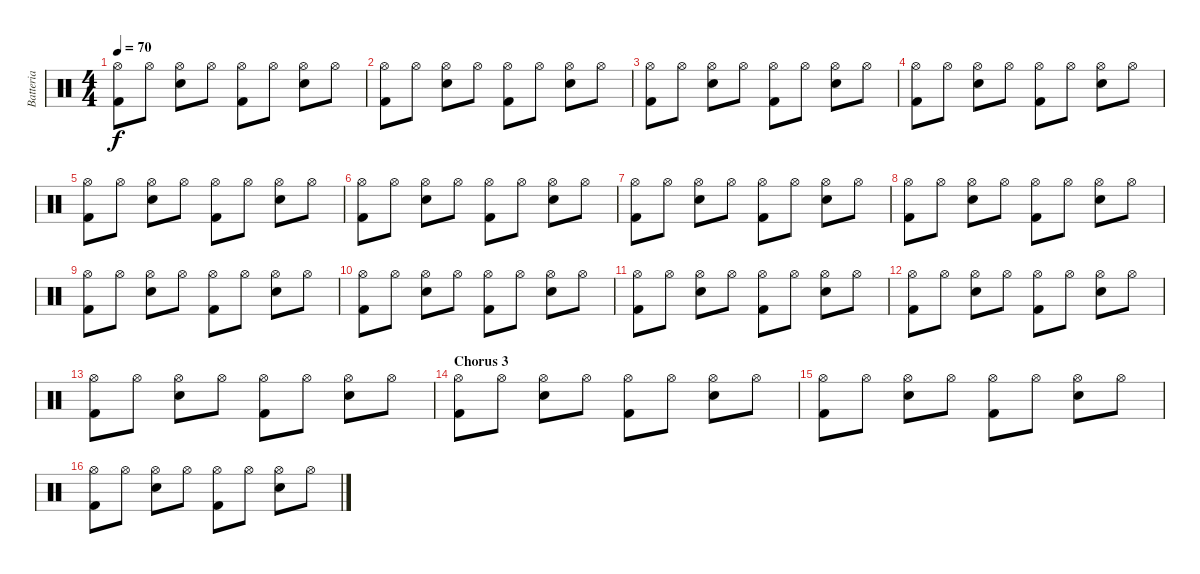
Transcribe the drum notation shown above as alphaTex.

\track ("Batteria" "Batteria") {instrument percussion}
\staff {score}
\articulation defaults
\ts (4 4)
\tempo 70
\clef neutral
\ks c
("Kick (hit) 2" "Hi-Hat (open)").8{dy f} "Hi-Hat (open)".8 ("Electric Snare (hit)" "Hi-Hat (open)").8 "Hi-Hat (open)".8 ("Kick (hit) 2" "Hi-Hat (open)").8 "Hi-Hat (open)".8 ("Electric Snare (hit)" "Hi-Hat (open)").8 "Hi-Hat (open)".8 |
("Kick (hit) 2" "Hi-Hat (open)").8 "Hi-Hat (open)".8 ("Electric Snare (hit)" "Hi-Hat (open)").8 "Hi-Hat (open)".8 ("Kick (hit) 2" "Hi-Hat (open)").8 "Hi-Hat (open)".8 ("Electric Snare (hit)" "Hi-Hat (open)").8 "Hi-Hat (open)".8 |
("Kick (hit) 2" "Hi-Hat (open)").8 "Hi-Hat (open)".8 ("Electric Snare (hit)" "Hi-Hat (open)").8 "Hi-Hat (open)".8 ("Kick (hit) 2" "Hi-Hat (open)").8 "Hi-Hat (open)".8 ("Electric Snare (hit)" "Hi-Hat (open)").8 "Hi-Hat (open)".8 |
("Kick (hit) 2" "Hi-Hat (open)").8 "Hi-Hat (open)".8 ("Electric Snare (hit)" "Hi-Hat (open)").8 "Hi-Hat (open)".8 ("Kick (hit) 2" "Hi-Hat (open)").8 "Hi-Hat (open)".8 ("Electric Snare (hit)" "Hi-Hat (open)").8 "Hi-Hat (open)".8 |
("Kick (hit) 2" "Hi-Hat (open)").8 "Hi-Hat (open)".8 ("Electric Snare (hit)" "Hi-Hat (open)").8 "Hi-Hat (open)".8 ("Kick (hit) 2" "Hi-Hat (open)").8 "Hi-Hat (open)".8 ("Electric Snare (hit)" "Hi-Hat (open)").8 "Hi-Hat (open)".8 |
("Kick (hit) 2" "Hi-Hat (open)").8 "Hi-Hat (open)".8 ("Electric Snare (hit)" "Hi-Hat (open)").8 "Hi-Hat (open)".8 ("Kick (hit) 2" "Hi-Hat (open)").8 "Hi-Hat (open)".8 ("Electric Snare (hit)" "Hi-Hat (open)").8 "Hi-Hat (open)".8 |
("Kick (hit) 2" "Hi-Hat (open)").8 "Hi-Hat (open)".8 ("Electric Snare (hit)" "Hi-Hat (open)").8 "Hi-Hat (open)".8 ("Kick (hit) 2" "Hi-Hat (open)").8 "Hi-Hat (open)".8 ("Electric Snare (hit)" "Hi-Hat (open)").8 "Hi-Hat (open)".8 |
("Kick (hit) 2" "Hi-Hat (open)").8 "Hi-Hat (open)".8 ("Electric Snare (hit)" "Hi-Hat (open)").8 "Hi-Hat (open)".8 ("Kick (hit) 2" "Hi-Hat (open)").8 "Hi-Hat (open)".8 ("Electric Snare (hit)" "Hi-Hat (open)").8 "Hi-Hat (open)".8 |
("Kick (hit) 2" "Hi-Hat (open)").8 "Hi-Hat (open)".8 ("Electric Snare (hit)" "Hi-Hat (open)").8 "Hi-Hat (open)".8 ("Kick (hit) 2" "Hi-Hat (open)").8 "Hi-Hat (open)".8 ("Electric Snare (hit)" "Hi-Hat (open)").8 "Hi-Hat (open)".8 |
("Kick (hit) 2" "Hi-Hat (open)").8 "Hi-Hat (open)".8 ("Electric Snare (hit)" "Hi-Hat (open)").8 "Hi-Hat (open)".8 ("Kick (hit) 2" "Hi-Hat (open)").8 "Hi-Hat (open)".8 ("Electric Snare (hit)" "Hi-Hat (open)").8 "Hi-Hat (open)".8 |
("Kick (hit) 2" "Hi-Hat (open)").8 "Hi-Hat (open)".8 ("Electric Snare (hit)" "Hi-Hat (open)").8 "Hi-Hat (open)".8 ("Kick (hit) 2" "Hi-Hat (open)").8 "Hi-Hat (open)".8 ("Electric Snare (hit)" "Hi-Hat (open)").8 "Hi-Hat (open)".8 |
("Kick (hit) 2" "Hi-Hat (open)").8 "Hi-Hat (open)".8 ("Electric Snare (hit)" "Hi-Hat (open)").8 "Hi-Hat (open)".8 ("Kick (hit) 2" "Hi-Hat (open)").8 "Hi-Hat (open)".8 ("Electric Snare (hit)" "Hi-Hat (open)").8 "Hi-Hat (open)".8 |
("Kick (hit) 2" "Hi-Hat (open)").8 "Hi-Hat (open)".8 ("Electric Snare (hit)" "Hi-Hat (open)").8 "Hi-Hat (open)".8 ("Kick (hit) 2" "Hi-Hat (open)").8 "Hi-Hat (open)".8 ("Electric Snare (hit)" "Hi-Hat (open)").8 "Hi-Hat (open)".8 |
\section ("" "Chorus 3")
("Kick (hit) 2" "Hi-Hat (open)").8 "Hi-Hat (open)".8 ("Electric Snare (hit)" "Hi-Hat (open)").8 "Hi-Hat (open)".8 ("Kick (hit) 2" "Hi-Hat (open)").8 "Hi-Hat (open)".8 ("Electric Snare (hit)" "Hi-Hat (open)").8 "Hi-Hat (open)".8 |
("Kick (hit) 2" "Hi-Hat (open)").8 "Hi-Hat (open)".8 ("Electric Snare (hit)" "Hi-Hat (open)").8 "Hi-Hat (open)".8 ("Kick (hit) 2" "Hi-Hat (open)").8 "Hi-Hat (open)".8 ("Electric Snare (hit)" "Hi-Hat (open)").8 "Hi-Hat (open)".8 |
("Kick (hit) 2" "Hi-Hat (open)").8 "Hi-Hat (open)".8 ("Electric Snare (hit)" "Hi-Hat (open)").8 "Hi-Hat (open)".8 ("Kick (hit) 2" "Hi-Hat (open)").8 "Hi-Hat (open)".8 ("Electric Snare (hit)" "Hi-Hat (open)").8 "Hi-Hat (open)".8
